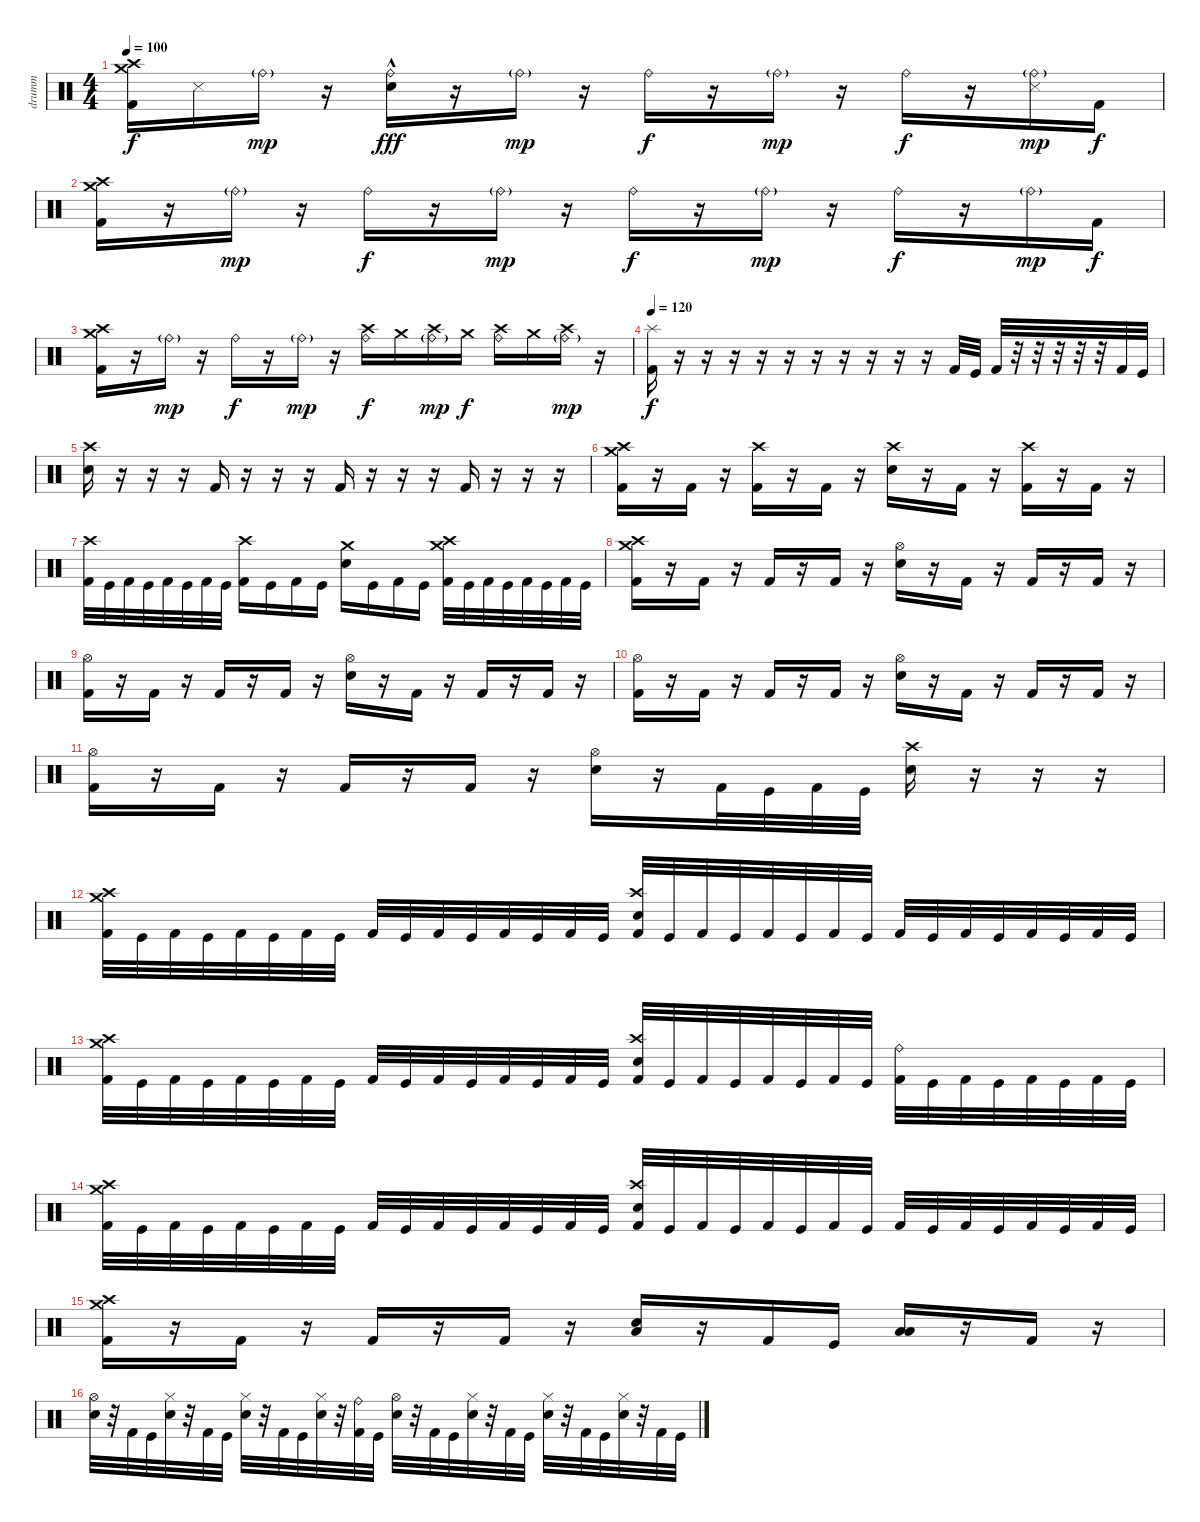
\track ("drumm" "drumm") {instrument percussion}
\staff
\articulation defaults
\ts (4 4)
\tempo 100
\clef neutral
\ks c
("Kick (hit) 2" "Crash medium (hit)" "Crash high (hit)").16{dy f} "Snare (side stick) 3".16 "Ride (bell)"{g}.16{dy mp} r.16 ("Electric Snare (hit)"{hac} "Ride (bell)").16{dy fff} r.16 "Ride (bell)"{g}.16{dy mp} r.16 "Ride (bell)".16{dy f} r.16 "Ride (bell)"{g}.16{dy mp} r.16 "Ride (bell)".16{dy f} r.16 ("Snare (side stick) 3" "Ride (bell)"{g}).16{dy mp} "Kick (hit) 2".16{dy f} |
("Kick (hit) 2" "Crash medium (hit)" "Crash high (hit)").16 r.16 "Ride (bell)"{g}.16{dy mp} r.16 "Ride (bell)".16{dy f} r.16 "Ride (bell)"{g}.16{dy mp} r.16 "Ride (bell)".16{dy f} r.16 "Ride (bell)"{g}.16{dy mp} r.16 "Ride (bell)".16{dy f} r.16 "Ride (bell)"{g}.16{dy mp} "Kick (hit) 2".16{dy f} |
("Kick (hit) 2" "Crash medium (hit)" "Crash high (hit)").16 r.16 "Ride (bell)"{g}.16{dy mp} r.16 "Ride (bell)".16{dy f} r.16 "Ride (bell)"{g}.16{dy mp} r.16{volume 0} ("Crash high (hit)" "Ride (bell)").16{dy f volume 13} "Crash medium (hit)".16 ("Crash high (hit)" "Ride (bell)"{g}).16{dy mp} "Crash medium (hit)".16{dy f} ("Crash high (hit)" "Ride (bell)").16 "Crash medium (hit)".16 ("Crash high (hit)" "Ride (bell)"{g}).16{dy mp} r.16 |
\tempo 120
("Kick (hit) 2" "Splash (hit)").16{dy f} r.16 r.16 r.16 r.16 r.16 r.16 r.16 r.16 r.16 r.16 "Kick (hit) 2".32 "Kick (hit)".32 "Kick (hit) 2".32 r.32 r.32 r.32 r.32 r.32 "Kick (hit) 2".32 "Kick (hit)".32 |
("Electric Snare (hit)" "Crash high (hit)").16 r.16 r.16 r.16 "Kick (hit) 2".16 r.16 r.16 r.16 "Kick (hit) 2".16 r.16 r.16 r.16 "Kick (hit) 2".16 r.16 r.16 r.16 |
("Kick (hit) 2" "Crash medium (hit)" "Crash high (hit)").16 r.16 "Kick (hit) 2".16 r.16 ("Kick (hit) 2" "Crash high (hit)").16 r.16 "Kick (hit) 2".16 r.16 ("Electric Snare (hit)" "Crash high (hit)").16 r.16 "Kick (hit) 2".16 r.16 ("Kick (hit) 2" "Crash high (hit)").16 r.16 "Kick (hit) 2".16 r.16 |
("Kick (hit) 2" "Crash high (hit)").32 "Kick (hit)".32 "Kick (hit) 2".32 "Kick (hit)".32 "Kick (hit) 2".32 "Kick (hit)".32 "Kick (hit) 2".32 "Kick (hit)".32 ("Kick (hit) 2" "Crash high (hit)").16 "Kick (hit)".16 "Kick (hit) 2".16 "Kick (hit)".16 ("Electric Snare (hit)" "Crash medium (hit)").16 "Kick (hit)".16 "Kick (hit) 2".16 "Kick (hit)".16 ("Kick (hit) 2" "Crash medium (hit)" "Crash high (hit)").32 "Kick (hit)".32 "Kick (hit) 2".32 "Kick (hit)".32 "Kick (hit) 2".32 "Kick (hit)".32 "Kick (hit) 2".32 "Kick (hit)".32 |
("Kick (hit) 2" "Crash medium (hit)" "Crash high (hit)").16 r.16 "Kick (hit) 2".16 r.16 "Kick (hit) 2".16 r.16 "Kick (hit) 2".16 r.16 ("Electric Snare (hit)" "Hi-Hat (open)").16 r.16 "Kick (hit) 2".16 r.16 "Kick (hit) 2".16 r.16 "Kick (hit) 2".16 r.16 |
("Kick (hit) 2" "Hi-Hat (open)").16 r.16 "Kick (hit) 2".16 r.16 "Kick (hit) 2".16 r.16 "Kick (hit) 2".16 r.16 ("Electric Snare (hit)" "Hi-Hat (open)").16 r.16 "Kick (hit) 2".16 r.16 "Kick (hit) 2".16 r.16 "Kick (hit) 2".16 r.16 |
("Kick (hit) 2" "Hi-Hat (open)").16 r.16 "Kick (hit) 2".16 r.16 "Kick (hit) 2".16 r.16 "Kick (hit) 2".16 r.16 ("Electric Snare (hit)" "Hi-Hat (open)").16 r.16 "Kick (hit) 2".16 r.16 "Kick (hit) 2".16 r.16 "Kick (hit) 2".16 r.16 |
("Kick (hit) 2" "Hi-Hat (open)").16 r.16 "Kick (hit) 2".16 r.16 "Kick (hit) 2".16 r.16 "Kick (hit) 2".16 r.16 ("Electric Snare (hit)" "Hi-Hat (open)").16 r.16 "Kick (hit) 2".32 "Kick (hit)".32 "Kick (hit) 2".32 "Kick (hit)".32 ("Electric Snare (hit)" "Crash high (hit)").16 r.16 r.16 r.16 |
("Kick (hit) 2" "Crash medium (hit)" "Crash high (hit)").32 "Kick (hit)".32 "Kick (hit) 2".32 "Kick (hit)".32 "Kick (hit) 2".32 "Kick (hit)".32 "Kick (hit) 2".32 "Kick (hit)".32 "Kick (hit) 2".32 "Kick (hit)".32 "Kick (hit) 2".32 "Kick (hit)".32 "Kick (hit) 2".32 "Kick (hit)".32 "Kick (hit) 2".32 "Kick (hit)".32 ("Kick (hit) 2" "Electric Snare (hit)" "Crash high (hit)").32 "Kick (hit)".32 "Kick (hit) 2".32 "Kick (hit)".32 "Kick (hit) 2".32 "Kick (hit)".32 "Kick (hit) 2".32 "Kick (hit)".32 "Kick (hit) 2".32 "Kick (hit)".32 "Kick (hit) 2".32 "Kick (hit)".32 "Kick (hit) 2".32 "Kick (hit)".32 "Kick (hit) 2".32 "Kick (hit)".32 |
("Kick (hit) 2" "Crash medium (hit)" "Crash high (hit)").32 "Kick (hit)".32 "Kick (hit) 2".32 "Kick (hit)".32 "Kick (hit) 2".32 "Kick (hit)".32 "Kick (hit) 2".32 "Kick (hit)".32 "Kick (hit) 2".32 "Kick (hit)".32 "Kick (hit) 2".32 "Kick (hit)".32 "Kick (hit) 2".32 "Kick (hit)".32 "Kick (hit) 2".32 "Kick (hit)".32 ("Kick (hit) 2" "Electric Snare (hit)" "Crash high (hit)").32 "Kick (hit)".32 "Kick (hit) 2".32 "Kick (hit)".32 "Kick (hit) 2".32 "Kick (hit)".32 "Kick (hit) 2".32 "Kick (hit)".32 ("Kick (hit) 2" "Ride (bell)").32 "Kick (hit)".32 "Kick (hit) 2".32 "Kick (hit)".32 "Kick (hit) 2".32 "Kick (hit)".32 "Kick (hit) 2".32 "Kick (hit)".32 |
("Kick (hit) 2" "Crash medium (hit)" "Crash high (hit)").32 "Kick (hit)".32 "Kick (hit) 2".32 "Kick (hit)".32 "Kick (hit) 2".32 "Kick (hit)".32 "Kick (hit) 2".32 "Kick (hit)".32 "Kick (hit) 2".32 "Kick (hit)".32 "Kick (hit) 2".32 "Kick (hit)".32 "Kick (hit) 2".32 "Kick (hit)".32 "Kick (hit) 2".32 "Kick (hit)".32 ("Kick (hit) 2" "Electric Snare (hit)" "Crash high (hit)").32 "Kick (hit)".32 "Kick (hit) 2".32 "Kick (hit)".32 "Kick (hit) 2".32 "Kick (hit)".32 "Kick (hit) 2".32 "Kick (hit)".32 "Kick (hit) 2".32 "Kick (hit)".32 "Kick (hit) 2".32 "Kick (hit)".32 "Kick (hit) 2".32 "Kick (hit)".32 "Kick (hit) 2".32 "Kick (hit)".32 |
("Kick (hit) 2" "Crash medium (hit)" "Crash high (hit)").16 r.16 "Kick (hit) 2".16 r.16 "Kick (hit) 2".16 r.16 "Kick (hit) 2".16 r.16 ("Electric Snare (hit)" "Low Tom (hit)").16 r.16 "Kick (hit) 2".16 "Kick (hit)".16 ("Low Tom (hit)" "Low Floor Tom (hit)").16 r.16 "Kick (hit) 2".16 r.16 |
("Electric Snare (hit)" "Hi-Hat (open)").32 r.32 "Kick (hit) 2".32 "Kick (hit)".32 ("Electric Snare (hit)" "Hi-Hat (closed)").32 r.32 "Kick (hit) 2".32 "Kick (hit)".32 ("Electric Snare (hit)" "Hi-Hat (closed)").32 r.32 "Kick (hit) 2".32 "Kick (hit)".32 ("Electric Snare (hit)" "Hi-Hat (closed)").32 r.32 ("Kick (hit) 2" "Ride (bell)").32 "Kick (hit)".32 ("Electric Snare (hit)" "Hi-Hat (open)").32 r.32 "Kick (hit) 2".32 "Kick (hit)".32 ("Electric Snare (hit)" "Hi-Hat (closed)").32 r.32 "Kick (hit) 2".32 "Kick (hit)".32 ("Electric Snare (hit)" "Hi-Hat (closed)").32 r.32 "Kick (hit) 2".32 "Kick (hit)".32 ("Electric Snare (hit)" "Hi-Hat (closed)").32 r.32 "Kick (hit) 2".32 "Kick (hit)".32
